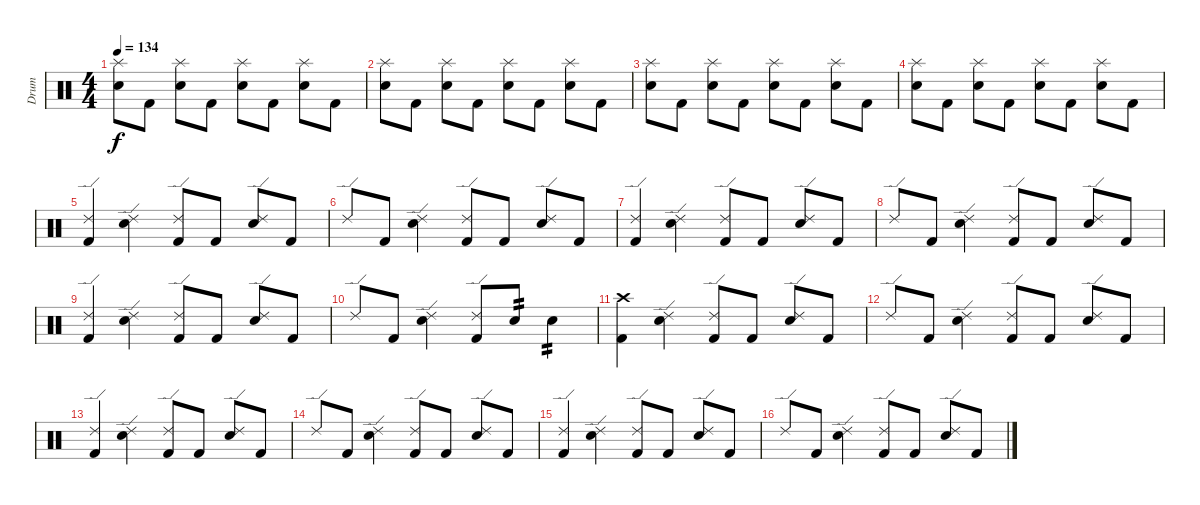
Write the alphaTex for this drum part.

\track ("Drum" "Drum") {instrument percussion}
\staff {score}
\articulation defaults
\ts (4 4)
\tempo 134
\clef neutral
\ks c
("Electric Snare (hit)" "Splash (hit)").8{dy f} "Kick (hit) 2".8 ("Electric Snare (hit)" "Splash (hit)").8 "Kick (hit) 2".8 ("Electric Snare (hit)" "Splash (hit)").8 "Kick (hit) 2".8 ("Electric Snare (hit)" "Splash (hit)").8 "Kick (hit) 2".8 |
("Electric Snare (hit)" "Splash (hit)").8 "Kick (hit) 2".8 ("Electric Snare (hit)" "Splash (hit)").8 "Kick (hit) 2".8 ("Electric Snare (hit)" "Splash (hit)").8 "Kick (hit) 2".8 ("Electric Snare (hit)" "Splash (hit)").8 "Kick (hit) 2".8 |
("Electric Snare (hit)" "Splash (hit)").8 "Kick (hit) 2".8 ("Electric Snare (hit)" "Splash (hit)").8 "Kick (hit) 2".8 ("Electric Snare (hit)" "Splash (hit)").8 "Kick (hit) 2".8 ("Electric Snare (hit)" "Splash (hit)").8 "Kick (hit) 2".8 |
("Electric Snare (hit)" "Splash (hit)").8 "Kick (hit) 2".8 ("Electric Snare (hit)" "Splash (hit)").8 "Kick (hit) 2".8 ("Electric Snare (hit)" "Splash (hit)").8 "Kick (hit) 2".8 ("Electric Snare (hit)" "Splash (hit)").8 "Kick (hit) 2".8 |
("Kick (hit) 2" "Ride (edge) 2").4 ("Electric Snare (hit)" "Ride (edge) 2").4 ("Ride (edge) 2" "Kick (hit) 2").8 "Kick (hit) 2".8 ("Electric Snare (hit)" "Ride (edge) 2").8 "Kick (hit) 2".8 |
"Ride (edge) 2".8 "Kick (hit) 2".8 ("Electric Snare (hit)" "Ride (edge) 2").4 ("Kick (hit) 2" "Ride (edge) 2").8 "Kick (hit) 2".8 ("Ride (edge) 2" "Electric Snare (hit)").8 "Kick (hit) 2".8 |
("Kick (hit) 2" "Ride (edge) 2").4 ("Electric Snare (hit)" "Ride (edge) 2").4 ("Ride (edge) 2" "Kick (hit) 2").8 "Kick (hit) 2".8 ("Electric Snare (hit)" "Ride (edge) 2").8 "Kick (hit) 2".8 |
"Ride (edge) 2".8 "Kick (hit) 2".8 ("Electric Snare (hit)" "Ride (edge) 2").4 ("Kick (hit) 2" "Ride (edge) 2").8 "Kick (hit) 2".8 ("Ride (edge) 2" "Electric Snare (hit)").8 "Kick (hit) 2".8 |
("Kick (hit) 2" "Ride (edge) 2").4 ("Electric Snare (hit)" "Ride (edge) 2").4 ("Ride (edge) 2" "Kick (hit) 2").8 "Kick (hit) 2".8 ("Electric Snare (hit)" "Ride (edge) 2").8 "Kick (hit) 2".8 |
"Ride (edge) 2".8 "Kick (hit) 2".8 ("Electric Snare (hit)" "Ride (edge) 2").4 ("Kick (hit) 2" "Ride (edge) 2").8 "Electric Snare (hit)".8{tp 2} "Electric Snare (hit)".4{tp 2} |
("Kick (hit) 2" "Crash high (hit)").4 ("Electric Snare (hit)" "Ride (edge) 2").4 ("Ride (edge) 2" "Kick (hit) 2").8 "Kick (hit) 2".8 ("Electric Snare (hit)" "Ride (edge) 2").8 "Kick (hit) 2".8 |
"Ride (edge) 2".8 "Kick (hit) 2".8 ("Electric Snare (hit)" "Ride (edge) 2").4 ("Kick (hit) 2" "Ride (edge) 2").8 "Kick (hit) 2".8 ("Ride (edge) 2" "Electric Snare (hit)").8 "Kick (hit) 2".8 |
("Kick (hit) 2" "Ride (edge) 2").4 ("Electric Snare (hit)" "Ride (edge) 2").4 ("Ride (edge) 2" "Kick (hit) 2").8 "Kick (hit) 2".8 ("Electric Snare (hit)" "Ride (edge) 2").8 "Kick (hit) 2".8 |
"Ride (edge) 2".8 "Kick (hit) 2".8 ("Electric Snare (hit)" "Ride (edge) 2").4 ("Kick (hit) 2" "Ride (edge) 2").8 "Kick (hit) 2".8 ("Ride (edge) 2" "Electric Snare (hit)").8 "Kick (hit) 2".8 |
("Kick (hit) 2" "Ride (edge) 2").4 ("Electric Snare (hit)" "Ride (edge) 2").4 ("Ride (edge) 2" "Kick (hit) 2").8 "Kick (hit) 2".8 ("Electric Snare (hit)" "Ride (edge) 2").8 "Kick (hit) 2".8 |
"Ride (edge) 2".8 "Kick (hit) 2".8 ("Electric Snare (hit)" "Ride (edge) 2").4 ("Kick (hit) 2" "Ride (edge) 2").8 "Kick (hit) 2".8 ("Ride (edge) 2" "Electric Snare (hit)").8 "Kick (hit) 2".8
